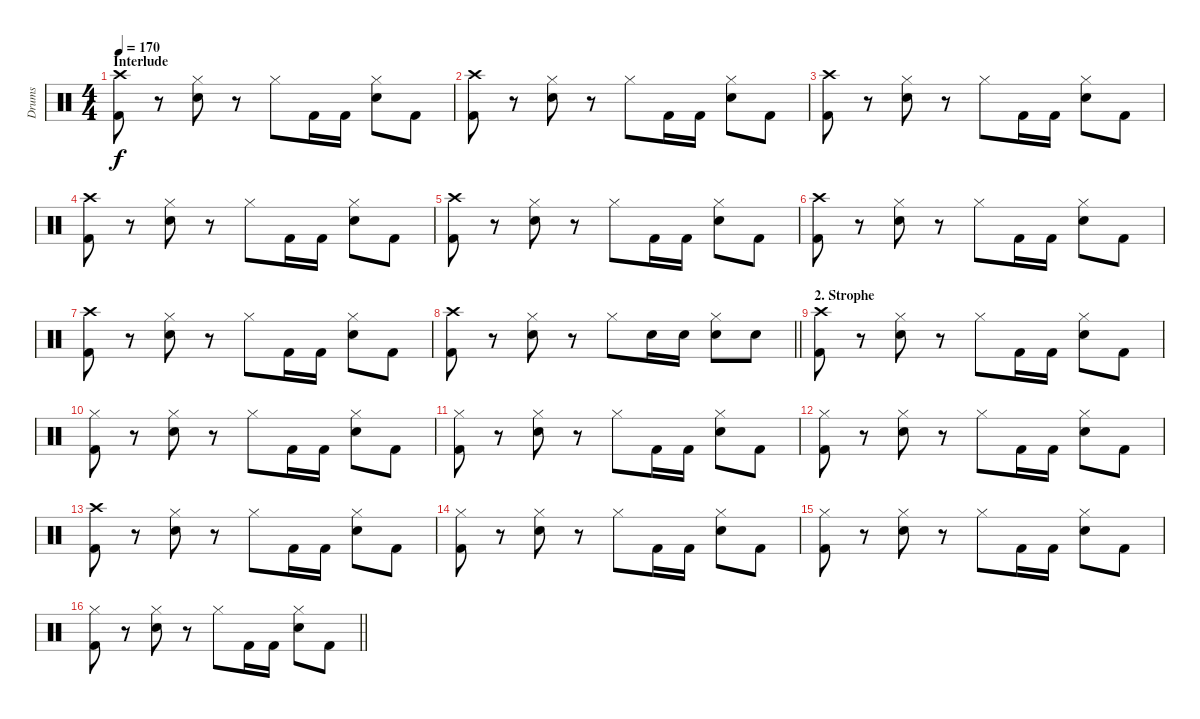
\track ("Drums" "Drums") {instrument percussion}
\staff {score}
\articulation defaults
\ts (4 4)
\section ("" "Interlude")
\tempo 170
\clef neutral
\ks c
("Crash high (hit)" "Kick (hit) 2").8{dy f} r.8 ("Hi-Hat (closed)" "Snare (hit) 2").8 r.8 "Hi-Hat (closed)".8 "Kick (hit) 2".16 "Kick (hit) 2".16 ("Hi-Hat (closed)" "Snare (hit) 2").8 "Kick (hit) 2".8 |
("Crash high (hit)" "Kick (hit) 2").8 r.8 ("Hi-Hat (closed)" "Snare (hit) 2").8 r.8 "Hi-Hat (closed)".8 "Kick (hit) 2".16 "Kick (hit) 2".16 ("Hi-Hat (closed)" "Snare (hit) 2").8 "Kick (hit) 2".8 |
("Crash high (hit)" "Kick (hit) 2").8 r.8 ("Hi-Hat (closed)" "Snare (hit) 2").8 r.8 "Hi-Hat (closed)".8 "Kick (hit) 2".16 "Kick (hit) 2".16 ("Hi-Hat (closed)" "Snare (hit) 2").8 "Kick (hit) 2".8 |
("Crash high (hit)" "Kick (hit) 2").8 r.8 ("Hi-Hat (closed)" "Snare (hit) 2").8 r.8 "Hi-Hat (closed)".8 "Kick (hit) 2".16 "Kick (hit) 2".16 ("Hi-Hat (closed)" "Snare (hit) 2").8 "Kick (hit) 2".8 |
("Crash high (hit)" "Kick (hit) 2").8 r.8 ("Hi-Hat (closed)" "Snare (hit) 2").8 r.8 "Hi-Hat (closed)".8 "Kick (hit) 2".16 "Kick (hit) 2".16 ("Hi-Hat (closed)" "Snare (hit) 2").8 "Kick (hit) 2".8 |
("Crash high (hit)" "Kick (hit) 2").8 r.8 ("Hi-Hat (closed)" "Snare (hit) 2").8 r.8 "Hi-Hat (closed)".8 "Kick (hit) 2".16 "Kick (hit) 2".16 ("Hi-Hat (closed)" "Snare (hit) 2").8 "Kick (hit) 2".8 |
("Crash high (hit)" "Kick (hit) 2").8 r.8 ("Hi-Hat (closed)" "Snare (hit) 2").8 r.8 "Hi-Hat (closed)".8 "Kick (hit) 2".16 "Kick (hit) 2".16 ("Hi-Hat (closed)" "Snare (hit) 2").8 "Kick (hit) 2".8 |
\barLineRight lightlight
("Crash high (hit)" "Kick (hit) 2").8 r.8 ("Hi-Hat (closed)" "Snare (hit) 2").8 r.8 "Hi-Hat (closed)".8 "Snare (hit) 2".16 "Snare (hit) 2".16 ("Hi-Hat (closed)" "Snare (hit) 2").8 "Snare (hit) 2".8 |
\section ("" "2. Strophe")
("Crash high (hit)" "Kick (hit) 2").8 r.8 ("Hi-Hat (closed)" "Snare (hit) 2").8 r.8 "Hi-Hat (closed)".8 "Kick (hit) 2".16 "Kick (hit) 2".16 ("Hi-Hat (closed)" "Snare (hit) 2").8 "Kick (hit) 2".8 |
("Hi-Hat (closed)" "Kick (hit) 2").8 r.8 ("Hi-Hat (closed)" "Snare (hit) 2").8 r.8 "Hi-Hat (closed)".8 "Kick (hit) 2".16 "Kick (hit) 2".16 ("Hi-Hat (closed)" "Snare (hit) 2").8 "Kick (hit) 2".8 |
("Hi-Hat (closed)" "Kick (hit) 2").8 r.8 ("Hi-Hat (closed)" "Snare (hit) 2").8 r.8 "Hi-Hat (closed)".8 "Kick (hit) 2".16 "Kick (hit) 2".16 ("Hi-Hat (closed)" "Snare (hit) 2").8 "Kick (hit) 2".8 |
("Hi-Hat (closed)" "Kick (hit) 2").8 r.8 ("Hi-Hat (closed)" "Snare (hit) 2").8 r.8 "Hi-Hat (closed)".8 "Kick (hit) 2".16 "Kick (hit) 2".16 ("Hi-Hat (closed)" "Snare (hit) 2").8 "Kick (hit) 2".8 |
("Crash high (hit)" "Kick (hit) 2").8 r.8 ("Hi-Hat (closed)" "Snare (hit) 2").8 r.8 "Hi-Hat (closed)".8 "Kick (hit) 2".16 "Kick (hit) 2".16 ("Hi-Hat (closed)" "Snare (hit) 2").8 "Kick (hit) 2".8 |
("Hi-Hat (closed)" "Kick (hit) 2").8 r.8 ("Hi-Hat (closed)" "Snare (hit) 2").8 r.8 "Hi-Hat (closed)".8 "Kick (hit) 2".16 "Kick (hit) 2".16 ("Hi-Hat (closed)" "Snare (hit) 2").8 "Kick (hit) 2".8 |
("Hi-Hat (closed)" "Kick (hit) 2").8 r.8 ("Hi-Hat (closed)" "Snare (hit) 2").8 r.8 "Hi-Hat (closed)".8 "Kick (hit) 2".16 "Kick (hit) 2".16 ("Hi-Hat (closed)" "Snare (hit) 2").8 "Kick (hit) 2".8 |
\barLineRight lightlight
("Hi-Hat (closed)" "Kick (hit) 2").8 r.8 ("Hi-Hat (closed)" "Snare (hit) 2").8 r.8 "Hi-Hat (closed)".8 "Kick (hit) 2".16 "Kick (hit) 2".16 ("Hi-Hat (closed)" "Snare (hit) 2").8 "Kick (hit) 2".8
